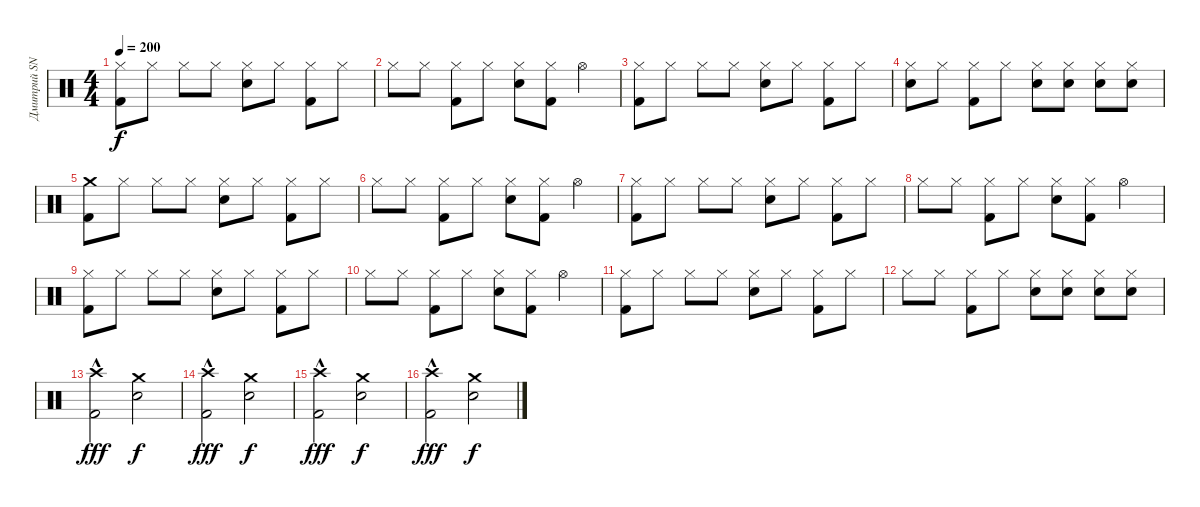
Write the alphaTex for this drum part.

\track ("Дмитрий SNAKE Хакимов" "Дмитрий SN") {instrument percussion}
\staff {score}
\articulation defaults
\ts (4 4)
\tempo 200
\clef neutral
\ks c
("Hi-Hat (closed)" "Kick (hit) 2").8{dy f} "Hi-Hat (closed)".8 "Hi-Hat (closed)".8 "Hi-Hat (closed)".8 ("Hi-Hat (closed)" "Snare (hit) 2").8 "Hi-Hat (closed)".8 ("Hi-Hat (closed)" "Kick (hit) 2").8 "Hi-Hat (closed)".8 |
"Hi-Hat (closed)".8 "Hi-Hat (closed)".8 ("Hi-Hat (closed)" "Kick (hit) 2").8 "Hi-Hat (closed)".8 ("Hi-Hat (closed)" "Snare (hit) 2").8 ("Hi-Hat (closed)" "Kick (hit) 2").8 "Hi-Hat (open)".4 |
("Hi-Hat (closed)" "Kick (hit) 2").8 "Hi-Hat (closed)".8 "Hi-Hat (closed)".8 "Hi-Hat (closed)".8 ("Hi-Hat (closed)" "Snare (hit) 2").8 "Hi-Hat (closed)".8 ("Hi-Hat (closed)" "Kick (hit) 2").8 "Hi-Hat (closed)".8 |
("Hi-Hat (closed)" "Snare (hit) 2").8 "Hi-Hat (closed)".8 ("Hi-Hat (closed)" "Kick (hit) 2").8 "Hi-Hat (closed)".8 ("Hi-Hat (closed)" "Snare (hit) 2").8 ("Hi-Hat (closed)" "Snare (hit) 2").8 ("Hi-Hat (closed)" "Snare (hit) 2").8 ("Hi-Hat (closed)" "Snare (hit) 2").8 |
("Crash medium (hit)" "Kick (hit) 2").8 "Hi-Hat (closed)".8 "Hi-Hat (closed)".8 "Hi-Hat (closed)".8 ("Hi-Hat (closed)" "Snare (hit) 2").8 "Hi-Hat (closed)".8 ("Hi-Hat (closed)" "Kick (hit) 2").8 "Hi-Hat (closed)".8 |
"Hi-Hat (closed)".8 "Hi-Hat (closed)".8 ("Hi-Hat (closed)" "Kick (hit) 2").8 "Hi-Hat (closed)".8 ("Hi-Hat (closed)" "Snare (hit) 2").8 ("Hi-Hat (closed)" "Kick (hit) 2").8 "Hi-Hat (open)".4 |
("Hi-Hat (closed)" "Kick (hit) 2").8 "Hi-Hat (closed)".8 "Hi-Hat (closed)".8 "Hi-Hat (closed)".8 ("Hi-Hat (closed)" "Snare (hit) 2").8 "Hi-Hat (closed)".8 ("Hi-Hat (closed)" "Kick (hit) 2").8 "Hi-Hat (closed)".8 |
"Hi-Hat (closed)".8 "Hi-Hat (closed)".8 ("Hi-Hat (closed)" "Kick (hit) 2").8 "Hi-Hat (closed)".8 ("Hi-Hat (closed)" "Snare (hit) 2").8 ("Hi-Hat (closed)" "Kick (hit) 2").8 "Hi-Hat (open)".4 |
("Hi-Hat (closed)" "Kick (hit) 2").8 "Hi-Hat (closed)".8 "Hi-Hat (closed)".8 "Hi-Hat (closed)".8 ("Hi-Hat (closed)" "Snare (hit) 2").8 "Hi-Hat (closed)".8 ("Hi-Hat (closed)" "Kick (hit) 2").8 "Hi-Hat (closed)".8 |
"Hi-Hat (closed)".8 "Hi-Hat (closed)".8 ("Hi-Hat (closed)" "Kick (hit) 2").8 "Hi-Hat (closed)".8 ("Hi-Hat (closed)" "Snare (hit) 2").8 ("Hi-Hat (closed)" "Kick (hit) 2").8 "Hi-Hat (open)".4 |
("Hi-Hat (closed)" "Kick (hit) 2").8 "Hi-Hat (closed)".8 "Hi-Hat (closed)".8 "Hi-Hat (closed)".8 ("Hi-Hat (closed)" "Snare (hit) 2").8 "Hi-Hat (closed)".8 ("Hi-Hat (closed)" "Kick (hit) 2").8 "Hi-Hat (closed)".8 |
"Hi-Hat (closed)".8 "Hi-Hat (closed)".8 ("Hi-Hat (closed)" "Kick (hit) 2").8 "Hi-Hat (closed)".8 ("Hi-Hat (closed)" "Snare (hit) 2").8 ("Hi-Hat (closed)" "Snare (hit) 2").8 ("Hi-Hat (closed)" "Snare (hit) 2").8 ("Hi-Hat (closed)" "Snare (hit) 2").8 |
("Crash high (hit)"{hac} "Kick (hit) 2"{hac}).2{dy fff} ("Crash medium (hit)" "Snare (hit) 2").2{dy f} |
("Crash high (hit)"{hac} "Kick (hit) 2"{hac}).2{dy fff} ("Crash medium (hit)" "Snare (hit) 2").2{dy f} |
("Crash high (hit)"{hac} "Kick (hit) 2"{hac}).2{dy fff} ("Crash medium (hit)" "Snare (hit) 2").2{dy f} |
("Crash high (hit)"{hac} "Kick (hit) 2"{hac}).2{dy fff} ("Crash medium (hit)" "Snare (hit) 2").2{dy f}
